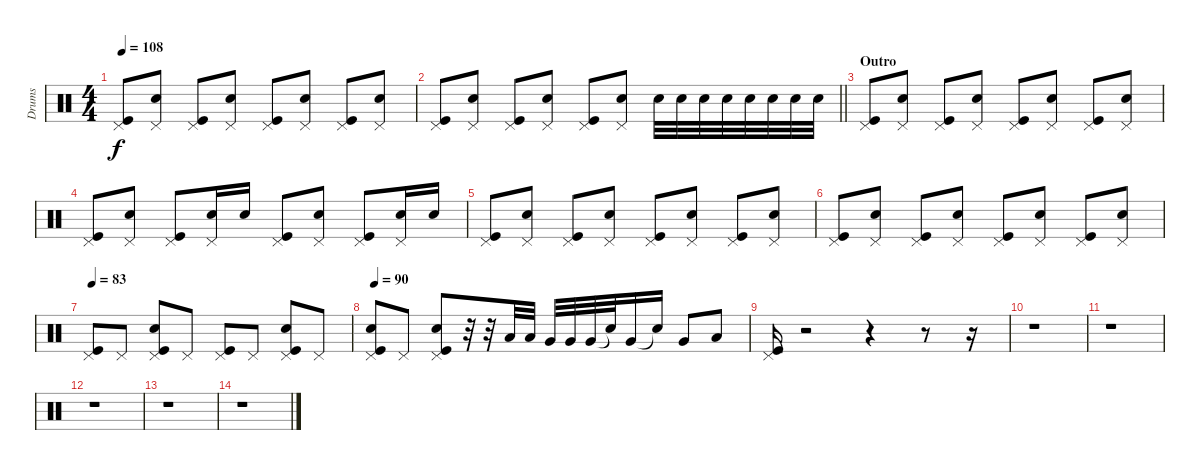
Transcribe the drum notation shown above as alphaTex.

\track ("Drums" "Drums") {instrument percussion}
\staff {score}
\articulation defaults
\ts (4 4)
\tempo 108
\clef neutral
\ks c
("Pedal Hi-Hat (hit)" "Kick (hit)").8{dy f} ("Pedal Hi-Hat (hit)" "Electric Snare (hit)").8 ("Pedal Hi-Hat (hit)" "Kick (hit)").8 ("Pedal Hi-Hat (hit)" "Electric Snare (hit)").8 ("Pedal Hi-Hat (hit)" "Kick (hit)").8 ("Pedal Hi-Hat (hit)" "Electric Snare (hit)").8 ("Pedal Hi-Hat (hit)" "Kick (hit)").8 ("Pedal Hi-Hat (hit)" "Electric Snare (hit)").8 |
\barLineRight lightlight
("Pedal Hi-Hat (hit)" "Kick (hit)").8 ("Pedal Hi-Hat (hit)" "Electric Snare (hit)").8 ("Pedal Hi-Hat (hit)" "Kick (hit)").8 ("Pedal Hi-Hat (hit)" "Electric Snare (hit)").8 ("Pedal Hi-Hat (hit)" "Kick (hit)").8 ("Pedal Hi-Hat (hit)" "Electric Snare (hit)").8 "Electric Snare (hit)".32 "Electric Snare (hit)".32 "Electric Snare (hit)".32 "Electric Snare (hit)".32 "Electric Snare (hit)".32 "Electric Snare (hit)".32 "Electric Snare (hit)".32 "Electric Snare (hit)".32 |
\section ("" "Outro")
("Pedal Hi-Hat (hit)" "Kick (hit)").8 ("Pedal Hi-Hat (hit)" "Electric Snare (hit)").8 ("Pedal Hi-Hat (hit)" "Kick (hit)").8 ("Pedal Hi-Hat (hit)" "Electric Snare (hit)").8 ("Pedal Hi-Hat (hit)" "Kick (hit)").8 ("Pedal Hi-Hat (hit)" "Electric Snare (hit)").8 ("Pedal Hi-Hat (hit)" "Kick (hit)").8 ("Pedal Hi-Hat (hit)" "Electric Snare (hit)").8 |
("Pedal Hi-Hat (hit)" "Kick (hit)").8 ("Pedal Hi-Hat (hit)" "Electric Snare (hit)").8 ("Pedal Hi-Hat (hit)" "Kick (hit)").8 ("Pedal Hi-Hat (hit)" "Electric Snare (hit)").16 "Electric Snare (hit)".16 ("Pedal Hi-Hat (hit)" "Kick (hit)").8 ("Pedal Hi-Hat (hit)" "Electric Snare (hit)").8 ("Pedal Hi-Hat (hit)" "Kick (hit)").8 ("Pedal Hi-Hat (hit)" "Electric Snare (hit)").16 "Electric Snare (hit)".16 |
("Pedal Hi-Hat (hit)" "Kick (hit)").8 ("Pedal Hi-Hat (hit)" "Electric Snare (hit)").8 ("Pedal Hi-Hat (hit)" "Kick (hit)").8 ("Pedal Hi-Hat (hit)" "Electric Snare (hit)").8 ("Pedal Hi-Hat (hit)" "Kick (hit)").8 ("Pedal Hi-Hat (hit)" "Electric Snare (hit)").8 ("Pedal Hi-Hat (hit)" "Kick (hit)").8 ("Pedal Hi-Hat (hit)" "Electric Snare (hit)").8 |
("Pedal Hi-Hat (hit)" "Kick (hit)").8 ("Pedal Hi-Hat (hit)" "Electric Snare (hit)").8 ("Pedal Hi-Hat (hit)" "Kick (hit)").8 ("Pedal Hi-Hat (hit)" "Electric Snare (hit)").8 ("Pedal Hi-Hat (hit)" "Kick (hit)").8 ("Pedal Hi-Hat (hit)" "Electric Snare (hit)").8 ("Pedal Hi-Hat (hit)" "Kick (hit)").8 ("Pedal Hi-Hat (hit)" "Electric Snare (hit)").8 |
\tempo 83
("Pedal Hi-Hat (hit)" "Kick (hit)").8 "Pedal Hi-Hat (hit)".8 ("Pedal Hi-Hat (hit)" "Electric Snare (hit)" "Kick (hit)").8 "Pedal Hi-Hat (hit)".8 ("Pedal Hi-Hat (hit)" "Kick (hit)").8 "Pedal Hi-Hat (hit)".8 ("Pedal Hi-Hat (hit)" "Electric Snare (hit)" "Kick (hit)").8 "Pedal Hi-Hat (hit)".8 |
\tempo 90
("Pedal Hi-Hat (hit)" "Electric Snare (hit)" "Kick (hit)").8 "Pedal Hi-Hat (hit)".8 ("Pedal Hi-Hat (hit)" "Electric Snare (hit)" "Kick (hit)").8 r.32 r.32 "Low Floor Tom (hit)".32 "Low Floor Tom (hit)".32 "Very Low Tom (hit)".32 "Very Low Tom (hit)".32 "Very Low Tom (hit)".32 "Snare (hit)"{t}.32 "Very Low Tom (hit)".16 "Snare (hit)"{t}.16 "Very Low Tom (hit)".8 "Low Tom (hit)".8 |
("Pedal Hi-Hat (hit)" "Kick (hit)").16 r.2 r.4 r.8 r.16 |
r.1 |
r.1 |
r.1 |
r.1 |
r.1
